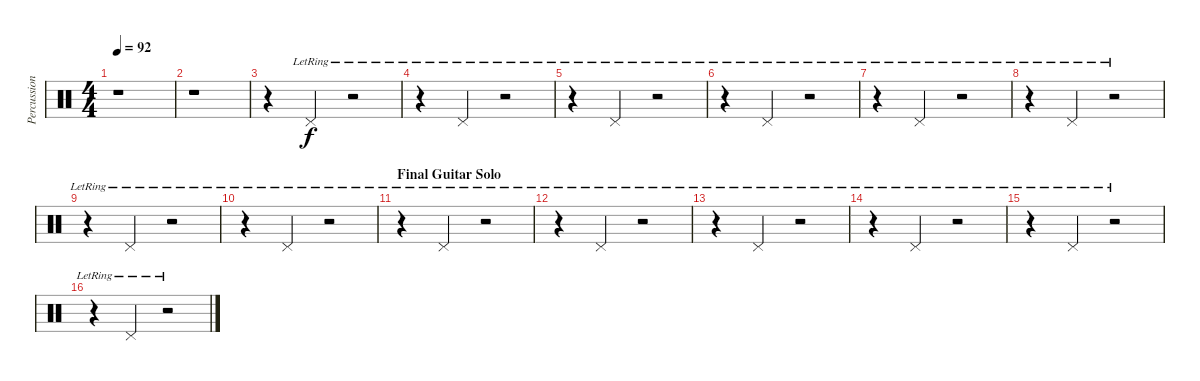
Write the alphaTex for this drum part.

\track ("Percussion" "Percussion") {instrument percussion}
\staff {score}
\articulation defaults
\ts (4 4)
\tempo 92
\clef neutral
\ks c
r.1{dy f} |
r.1 |
r.4 "Pedal Hi-Hat (hit)"{lr}.4 r.2 |
r.4 "Pedal Hi-Hat (hit)"{lr}.4 r.2 |
r.4 "Pedal Hi-Hat (hit)"{lr}.4 r.2 |
r.4 "Pedal Hi-Hat (hit)"{lr}.4 r.2 |
r.4 "Pedal Hi-Hat (hit)"{lr}.4 r.2 |
r.4 "Pedal Hi-Hat (hit)"{lr}.4 r.2 |
r.4 "Pedal Hi-Hat (hit)"{lr}.4 r.2 |
r.4 "Pedal Hi-Hat (hit)"{lr}.4 r.2 |
\section ("" "Final Guitar Solo ")
r.4 "Pedal Hi-Hat (hit)"{lr}.4 r.2 |
r.4 "Pedal Hi-Hat (hit)"{lr}.4 r.2 |
r.4 "Pedal Hi-Hat (hit)"{lr}.4 r.2 |
r.4 "Pedal Hi-Hat (hit)"{lr}.4 r.2 |
r.4 "Pedal Hi-Hat (hit)"{lr}.4 r.2 |
r.4 "Pedal Hi-Hat (hit)"{lr}.4 r.2
